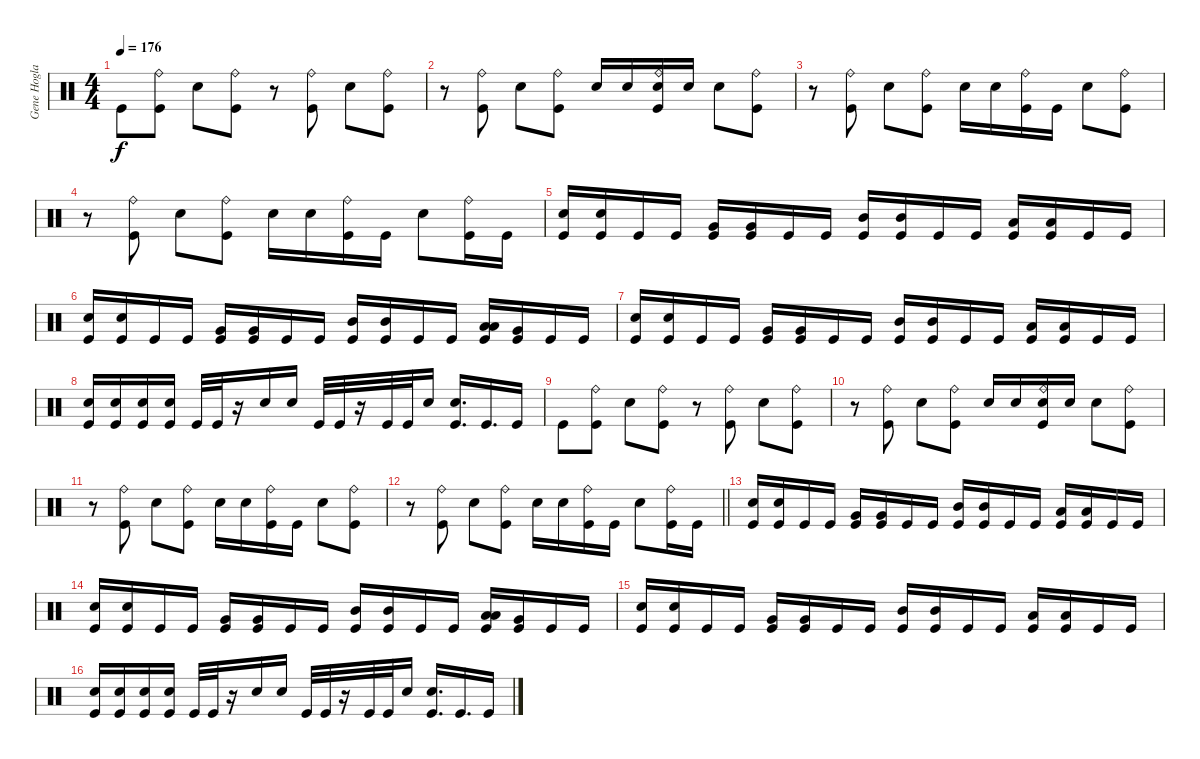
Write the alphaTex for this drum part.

\track ("Gene Hoglan " "Gene Hogla") {instrument percussion}
\staff {score}
\articulation defaults
\ts (4 4)
\tempo 176
\clef neutral
\ks c "Kick (hit)".8{dy f}
("Ride (bell)" "Kick (hit)").8 "Snare (hit) 2".8 ("Ride (bell)" "Kick (hit)").8 r.8 ("Ride (bell)" "Kick (hit)").8 "Snare (hit) 2".8 ("Ride (bell)" "Kick (hit)").8 |
r.8 ("Ride (bell)" "Kick (hit)").8 "Snare (hit) 2".8 ("Ride (bell)" "Kick (hit)").8 "Snare (hit) 2".16 "Snare (hit) 2".16 ("Ride (bell)" "Snare (hit) 2" "Kick (hit)").16 "Snare (hit) 2".16 "Snare (hit) 2".8 ("Ride (bell)" "Kick (hit)").8 |
r.8 ("Ride (bell)" "Kick (hit)").8 "Snare (hit) 2".8 ("Ride (bell)" "Kick (hit)").8 "Snare (hit) 2".16 "Snare (hit) 2".16 ("Ride (bell)" "Kick (hit)").16 "Kick (hit)".16 "Snare (hit) 2".8 ("Ride (bell)" "Kick (hit)").8 |
r.8 ("Ride (bell)" "Kick (hit)").8 "Snare (hit) 2".8 ("Ride (bell)" "Kick (hit)").8 "Snare (hit) 2".16 "Snare (hit) 2".16 ("Ride (bell)" "Kick (hit)").16 "Kick (hit)".16 "Snare (hit) 2".8 ("Ride (bell)" "Kick (hit)").16 "Kick (hit)".16 |
("Snare (hit) 2" "Kick (hit)").16 ("Snare (hit) 2" "Kick (hit)").16 "Kick (hit)".16 "Kick (hit)".16 ("Very Low Tom (hit)" "Kick (hit)").16 ("Very Low Tom (hit)" "Kick (hit)").16 "Kick (hit)".16 "Kick (hit)".16 ("Mid Tom (hit)" "Kick (hit)").16 ("Mid Tom (hit)" "Kick (hit)").16 "Kick (hit)".16 "Kick (hit)".16 ("Low Tom (hit)" "Kick (hit)").16 ("Low Tom (hit)" "Kick (hit)").16 "Kick (hit)".16 "Kick (hit)".16 |
("Snare (hit) 2" "Kick (hit)").16 ("Snare (hit) 2" "Kick (hit)").16 "Kick (hit)".16 "Kick (hit)".16 ("Very Low Tom (hit)" "Kick (hit)").16 ("Very Low Tom (hit)" "Kick (hit)").16 "Kick (hit)".16 "Kick (hit)".16 ("Mid Tom (hit)" "Kick (hit)").16 ("Mid Tom (hit)" "Kick (hit)").16 "Kick (hit)".16 "Kick (hit)".16 ("Low Tom (hit)" "Low Tom (hit)" "Kick (hit)").16 ("Very Low Tom (hit)" "Kick (hit)").16 "Kick (hit)".16 "Kick (hit)".16 |
("Snare (hit) 2" "Kick (hit)").16 ("Snare (hit) 2" "Kick (hit)").16 "Kick (hit)".16 "Kick (hit)".16 ("Very Low Tom (hit)" "Kick (hit)").16 ("Very Low Tom (hit)" "Kick (hit)").16 "Kick (hit)".16 "Kick (hit)".16 ("Mid Tom (hit)" "Kick (hit)").16 ("Mid Tom (hit)" "Kick (hit)").16 "Kick (hit)".16 "Kick (hit)".16 ("Low Tom (hit)" "Kick (hit)").16 ("Low Tom (hit)" "Kick (hit)").16 "Kick (hit)".16 "Kick (hit)".16 |
("Snare (hit) 2" "Kick (hit)").16 ("Snare (hit) 2" "Kick (hit)").16 ("Snare (hit) 2" "Kick (hit)").16 ("Snare (hit) 2" "Kick (hit)").16 "Kick (hit)".32 "Kick (hit)".32 r.16 "Snare (hit) 2".16 "Snare (hit) 2".16 "Kick (hit)".32 "Kick (hit)".32 r.16 "Kick (hit)".32 "Kick (hit)".32 "Snare (hit) 2".16 ("Snare (hit) 2" "Kick (hit)").16{d} "Kick (hit)".16{d} "Kick (hit)".16 |
"Kick (hit)".8 ("Ride (bell)" "Kick (hit)").8 "Snare (hit) 2".8 ("Ride (bell)" "Kick (hit)").8 r.8 ("Ride (bell)" "Kick (hit)").8 "Snare (hit) 2".8 ("Ride (bell)" "Kick (hit)").8 |
r.8 ("Ride (bell)" "Kick (hit)").8 "Snare (hit) 2".8 ("Ride (bell)" "Kick (hit)").8 "Snare (hit) 2".16 "Snare (hit) 2".16 ("Ride (bell)" "Snare (hit) 2" "Kick (hit)").16 "Snare (hit) 2".16 "Snare (hit) 2".8 ("Ride (bell)" "Kick (hit)").8 |
r.8 ("Ride (bell)" "Kick (hit)").8 "Snare (hit) 2".8 ("Ride (bell)" "Kick (hit)").8 "Snare (hit) 2".16 "Snare (hit) 2".16 ("Ride (bell)" "Kick (hit)").16 "Kick (hit)".16 "Snare (hit) 2".8 ("Ride (bell)" "Kick (hit)").8 |
\barLineRight lightlight
r.8 ("Ride (bell)" "Kick (hit)").8 "Snare (hit) 2".8 ("Ride (bell)" "Kick (hit)").8 "Snare (hit) 2".16 "Snare (hit) 2".16 ("Ride (bell)" "Kick (hit)").16 "Kick (hit)".16 "Snare (hit) 2".8 ("Ride (bell)" "Kick (hit)").16 "Kick (hit)".16 |
("Snare (hit) 2" "Kick (hit)").16 ("Snare (hit) 2" "Kick (hit)").16 "Kick (hit)".16 "Kick (hit)".16 ("Very Low Tom (hit)" "Kick (hit)").16 ("Very Low Tom (hit)" "Kick (hit)").16 "Kick (hit)".16 "Kick (hit)".16 ("Mid Tom (hit)" "Kick (hit)").16 ("Mid Tom (hit)" "Kick (hit)").16 "Kick (hit)".16 "Kick (hit)".16 ("Low Tom (hit)" "Kick (hit)").16 ("Low Tom (hit)" "Kick (hit)").16 "Kick (hit)".16 "Kick (hit)".16 |
("Snare (hit) 2" "Kick (hit)").16 ("Snare (hit) 2" "Kick (hit)").16 "Kick (hit)".16 "Kick (hit)".16 ("Very Low Tom (hit)" "Kick (hit)").16 ("Very Low Tom (hit)" "Kick (hit)").16 "Kick (hit)".16 "Kick (hit)".16 ("Mid Tom (hit)" "Kick (hit)").16 ("Mid Tom (hit)" "Kick (hit)").16 "Kick (hit)".16 "Kick (hit)".16 ("Low Tom (hit)" "Low Tom (hit)" "Kick (hit)").16 ("Very Low Tom (hit)" "Kick (hit)").16 "Kick (hit)".16 "Kick (hit)".16 |
("Snare (hit) 2" "Kick (hit)").16 ("Snare (hit) 2" "Kick (hit)").16 "Kick (hit)".16 "Kick (hit)".16 ("Very Low Tom (hit)" "Kick (hit)").16 ("Very Low Tom (hit)" "Kick (hit)").16 "Kick (hit)".16 "Kick (hit)".16 ("Mid Tom (hit)" "Kick (hit)").16 ("Mid Tom (hit)" "Kick (hit)").16 "Kick (hit)".16 "Kick (hit)".16 ("Low Tom (hit)" "Kick (hit)").16 ("Low Tom (hit)" "Kick (hit)").16 "Kick (hit)".16 "Kick (hit)".16 |
("Snare (hit) 2" "Kick (hit)").16 ("Snare (hit) 2" "Kick (hit)").16 ("Snare (hit) 2" "Kick (hit)").16 ("Snare (hit) 2" "Kick (hit)").16 "Kick (hit)".32 "Kick (hit)".32 r.16 "Snare (hit) 2".16 "Snare (hit) 2".16 "Kick (hit)".32 "Kick (hit)".32 r.16 "Kick (hit)".32 "Kick (hit)".32 "Snare (hit) 2".16 ("Snare (hit) 2" "Kick (hit)").16{d} "Kick (hit)".16{d} "Kick (hit)".16
